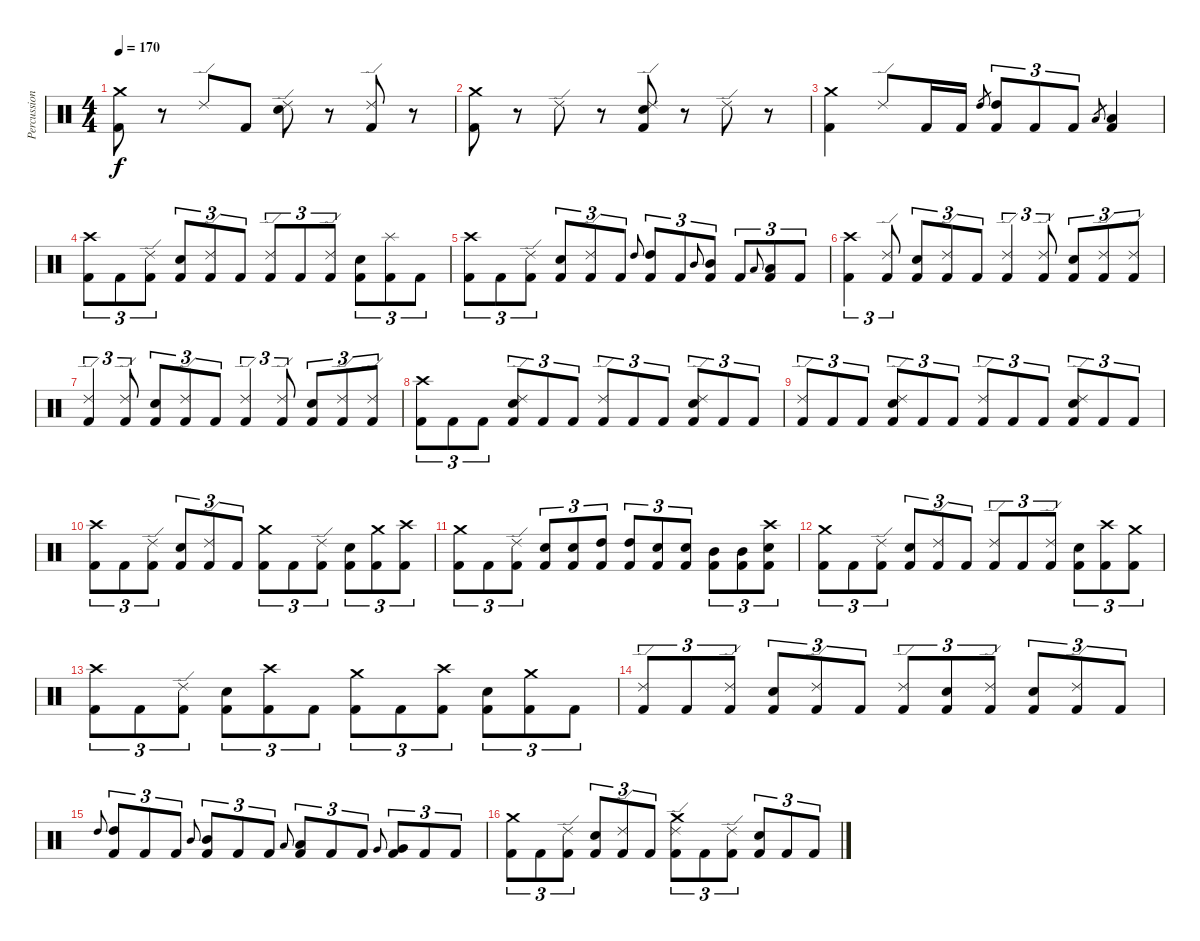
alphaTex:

\track ("Percussioni" "Percussion") {instrument percussion}
\staff {score}
\articulation defaults
\ts (4 4)
\tempo 170
\clef neutral
\ks c
("Crash medium (hit)" "Kick (hit) 2").8{dy f} r.8 "Ride (edge) 2".8 "Kick (hit) 2".8 ("Ride (edge) 2" "Snare (hit) 2").8 r.8 ("Ride (edge) 2" "Kick (hit) 2").8 r.8 |
("Crash medium (hit)" "Kick (hit) 2").8 r.8 "Ride (edge) 2".8 r.8 ("Ride (edge) 2" "Snare (hit) 2" "Kick (hit) 2").8 r.8 "Ride (edge) 2".8 r.8 |
("Crash medium (hit)" "Kick (hit) 2").4 "Ride (edge) 2".8 "Kick (hit) 2".16 "Kick (hit) 2".16 "High Tom (hit)".8{gr} ("High Tom (hit)" "Kick (hit) 2").8{tu (3 2)} "Kick (hit) 2".8{tu (3 2)} "Kick (hit) 2".8{tu (3 2)} "Low Tom (hit)".8{gr} ("Low Tom (hit)" "Kick (hit) 2").4 |
("Crash high (hit)" "Kick (hit) 2").8{tu (3 2)} "Kick (hit) 2".8{tu (3 2)} ("Ride (edge) 2" "Kick (hit) 2").8{tu (3 2)} ("Snare (hit) 2" "Kick (hit) 2").8{tu (3 2)} ("Ride (edge) 2" "Kick (hit) 2").8{tu (3 2)} "Kick (hit) 2".8{tu (3 2)} ("Ride (edge) 2" "Kick (hit) 2").8{tu (3 2)} "Kick (hit) 2".8{tu (3 2)} ("Ride (edge) 2" "Kick (hit) 2").8{tu (3 2)} ("Snare (hit) 2" "Kick (hit) 2").8{tu (3 2)} ("Splash (hit)" "Kick (hit) 2").8{tu (3 2)} "Kick (hit) 2".8{tu (3 2)} |
("Crash high (hit)" "Kick (hit) 2").8{tu (3 2)} "Kick (hit) 2".8{tu (3 2)} ("Ride (edge) 2" "Kick (hit) 2").8{tu (3 2)} ("Snare (hit) 2" "Kick (hit) 2").8{tu (3 2)} ("Ride (edge) 2" "Kick (hit) 2").8{tu (3 2)} "Kick (hit) 2".8{tu (3 2)} "High Tom (hit)".8{gr onbeat} ("High Tom (hit)" "Kick (hit) 2").8{tu (3 2)} "Kick (hit) 2".8{tu (3 2)} "Mid Tom (hit)".8{gr onbeat} ("Mid Tom (hit)" "Kick (hit) 2").8{tu (3 2)} "Kick (hit) 2".8{tu (3 2)} "Low Tom (hit)".8{gr onbeat} ("Low Tom (hit)" "Kick (hit) 2").8{tu (3 2)} "Kick (hit) 2".8{tu (3 2)} |
("Crash high (hit)" "Kick (hit) 2").4{tu (3 2)} ("Ride (edge) 2" "Kick (hit) 2").8{tu (3 2)} ("Snare (hit) 2" "Kick (hit) 2").8{tu (3 2)} ("Ride (edge) 2" "Kick (hit) 2").8{tu (3 2)} "Kick (hit) 2".8{tu (3 2)} ("Ride (edge) 2" "Kick (hit) 2").4{tu (3 2)} ("Ride (edge) 2" "Kick (hit) 2").8{tu (3 2)} ("Snare (hit) 2" "Kick (hit) 2").8{tu (3 2)} ("Ride (edge) 2" "Kick (hit) 2").8{tu (3 2)} ("Ride (edge) 2" "Kick (hit) 2").8{tu (3 2)} |
("Ride (edge) 2" "Kick (hit) 2").4{tu (3 2)} ("Ride (edge) 2" "Kick (hit) 2").8{tu (3 2)} ("Snare (hit) 2" "Kick (hit) 2").8{tu (3 2)} ("Ride (edge) 2" "Kick (hit) 2").8{tu (3 2)} "Kick (hit) 2".8{tu (3 2)} ("Ride (edge) 2" "Kick (hit) 2").4{tu (3 2)} ("Ride (edge) 2" "Kick (hit) 2").8{tu (3 2)} ("Snare (hit) 2" "Kick (hit) 2").8{tu (3 2)} ("Ride (edge) 2" "Kick (hit) 2").8{tu (3 2)} ("Ride (edge) 2" "Kick (hit) 2").8{tu (3 2)} |
("Crash high (hit)" "Kick (hit) 2").8{tu (3 2)} "Kick (hit) 2".8{tu (3 2)} "Kick (hit) 2".8{tu (3 2)} ("Ride (edge) 2" "Snare (hit) 2" "Kick (hit) 2").8{tu (3 2)} "Kick (hit) 2".8{tu (3 2)} "Kick (hit) 2".8{tu (3 2)} ("Ride (edge) 2" "Kick (hit) 2").8{tu (3 2)} "Kick (hit) 2".8{tu (3 2)} "Kick (hit) 2".8{tu (3 2)} ("Ride (edge) 2" "Snare (hit) 2" "Kick (hit) 2").8{tu (3 2)} "Kick (hit) 2".8{tu (3 2)} "Kick (hit) 2".8{tu (3 2)} |
("Ride (edge) 2" "Kick (hit) 2").8{tu (3 2)} "Kick (hit) 2".8{tu (3 2)} "Kick (hit) 2".8{tu (3 2)} ("Ride (edge) 2" "Snare (hit) 2" "Kick (hit) 2").8{tu (3 2)} "Kick (hit) 2".8{tu (3 2)} "Kick (hit) 2".8{tu (3 2)} ("Ride (edge) 2" "Kick (hit) 2").8{tu (3 2)} "Kick (hit) 2".8{tu (3 2)} "Kick (hit) 2".8{tu (3 2)} ("Ride (edge) 2" "Snare (hit) 2" "Kick (hit) 2").8{tu (3 2)} "Kick (hit) 2".8{tu (3 2)} "Kick (hit) 2".8{tu (3 2)} |
("Crash high (hit)" "Kick (hit) 2").8{tu (3 2)} "Kick (hit) 2".8{tu (3 2)} ("Ride (edge) 2" "Kick (hit) 2").8{tu (3 2)} ("Snare (hit) 2" "Kick (hit) 2").8{tu (3 2)} ("Ride (edge) 2" "Kick (hit) 2").8{tu (3 2)} "Kick (hit) 2".8{tu (3 2)} ("Crash medium (hit)" "Kick (hit) 2").8{tu (3 2)} "Kick (hit) 2".8{tu (3 2)} ("Ride (edge) 2" "Kick (hit) 2").8{tu (3 2)} ("Snare (hit) 2" "Kick (hit) 2").8{tu (3 2)} ("Crash medium (hit)" "Kick (hit) 2").8{tu (3 2)} ("Crash high (hit)" "Kick (hit) 2").8{tu (3 2)} |
("Crash medium (hit)" "Kick (hit) 2").8{tu (3 2)} "Kick (hit) 2".8{tu (3 2)} ("Ride (edge) 2" "Kick (hit) 2").8{tu (3 2)} ("Snare (hit) 2" "Kick (hit) 2").8{tu (3 2)} ("Snare (hit) 2" "Kick (hit) 2").8{tu (3 2)} ("High Tom (hit)" "Kick (hit) 2").8{tu (3 2)} ("High Tom (hit)" "Kick (hit) 2").8{tu (3 2)} ("Snare (hit) 2" "Kick (hit) 2").8{tu (3 2)} ("Snare (hit) 2" "Kick (hit) 2").8{tu (3 2)} ("Mid Tom (hit)" "Kick (hit) 2").8{tu (3 2)} ("Mid Tom (hit)" "Kick (hit) 2").8{tu (3 2)} ("Crash high (hit)" "Snare (hit) 2" "Kick (hit) 2").8{tu (3 2)} |
("Crash medium (hit)" "Kick (hit) 2").8{tu (3 2)} "Kick (hit) 2".8{tu (3 2)} ("Ride (edge) 2" "Kick (hit) 2").8{tu (3 2)} ("Snare (hit) 2" "Kick (hit) 2").8{tu (3 2)} ("Ride (edge) 2" "Kick (hit) 2").8{tu (3 2)} "Kick (hit) 2".8{tu (3 2)} ("Ride (edge) 2" "Kick (hit) 2").8{tu (3 2)} "Kick (hit) 2".8{tu (3 2)} ("Ride (edge) 2" "Kick (hit) 2").8{tu (3 2)} ("Snare (hit) 2" "Kick (hit) 2").8{tu (3 2)} ("Crash high (hit)" "Kick (hit) 2").8{tu (3 2)} ("Crash medium (hit)" "Kick (hit) 2").8{tu (3 2)} |
("Crash high (hit)" "Kick (hit) 2").8{tu (3 2)} "Kick (hit) 2".8{tu (3 2)} ("Ride (edge) 2" "Kick (hit) 2").8{tu (3 2)} ("Snare (hit) 2" "Kick (hit) 2").8{tu (3 2)} ("Crash high (hit)" "Kick (hit) 2").8{tu (3 2)} "Kick (hit) 2".8{tu (3 2)} ("Crash medium (hit)" "Kick (hit) 2").8{tu (3 2)} "Kick (hit) 2".8{tu (3 2)} ("Crash high (hit)" "Kick (hit) 2").8{tu (3 2)} ("Snare (hit) 2" "Kick (hit) 2").8{tu (3 2)} ("Crash medium (hit)" "Kick (hit) 2").8{tu (3 2)} "Kick (hit) 2".8{tu (3 2)} |
("Ride (edge) 2" "Kick (hit) 2").8{tu (3 2)} "Kick (hit) 2".8{tu (3 2)} ("Ride (edge) 2" "Kick (hit) 2").8{tu (3 2)} ("Snare (hit) 2" "Kick (hit) 2").8{tu (3 2)} ("Ride (edge) 2" "Kick (hit) 2").8{tu (3 2)} "Kick (hit) 2".8{tu (3 2)} ("Ride (edge) 2" "Kick (hit) 2").8{tu (3 2)} ("Snare (hit) 2" "Kick (hit) 2").8{tu (3 2)} ("Ride (edge) 2" "Kick (hit) 2").8{tu (3 2)} ("Snare (hit) 2" "Kick (hit) 2").8{tu (3 2)} ("Ride (edge) 2" "Kick (hit) 2").8{tu (3 2)} "Kick (hit) 2".8{tu (3 2)} |
"High Tom (hit)".8{gr onbeat} ("High Tom (hit)" "Kick (hit) 2").8{tu (3 2)} "Kick (hit) 2".8{tu (3 2)} "Kick (hit) 2".8{tu (3 2)} "Mid Tom (hit)".8{gr onbeat} ("Mid Tom (hit)" "Kick (hit) 2").8{tu (3 2)} "Kick (hit) 2".8{tu (3 2)} "Kick (hit) 2".8{tu (3 2)} "Low Tom (hit)".8{gr onbeat} ("Low Tom (hit)" "Kick (hit) 2").8{tu (3 2)} "Kick (hit) 2".8{tu (3 2)} "Kick (hit) 2".8{tu (3 2)} "Very Low Tom (hit)".8{gr onbeat} ("Very Low Tom (hit)" "Kick (hit) 2").8{tu (3 2)} "Kick (hit) 2".8{tu (3 2)} "Kick (hit) 2".8{tu (3 2)} |
("Crash medium (hit)" "Kick (hit) 2").8{tu (3 2)} "Kick (hit) 2".8{tu (3 2)} ("Ride (edge) 2" "Kick (hit) 2").8{tu (3 2)} ("Snare (hit) 2" "Kick (hit) 2").8{tu (3 2)} ("Ride (edge) 2" "Kick (hit) 2").8{tu (3 2)} "Kick (hit) 2".8{tu (3 2)} ("Crash medium (hit)" "Ride (edge) 2" "Kick (hit) 2").8{tu (3 2)} "Kick (hit) 2".8{tu (3 2)} ("Ride (edge) 2" "Kick (hit) 2").8{tu (3 2)} ("Snare (hit) 2" "Kick (hit) 2").8{tu (3 2)} "Kick (hit) 2".8{tu (3 2)} "Kick (hit) 2".8{tu (3 2)}
